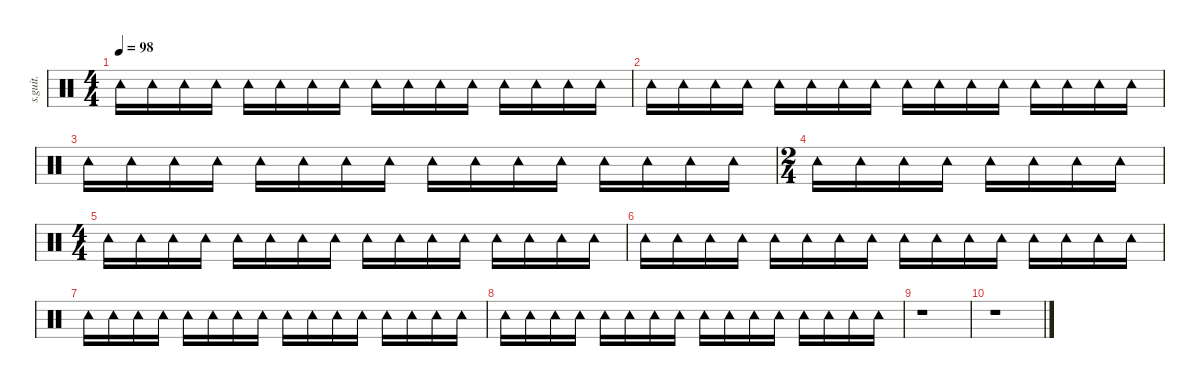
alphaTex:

\defaultSystemsLayout 4
\hideDynamics
\bracketExtendMode nobrackets
\track ("Additional Percussion" "s.guit.") {instrument percussion}
\staff {score}
\articulation defaults
\ts (4 4)
\tempo 98
\clef neutral
\ks c "Tambourine (hit)".16{dy ff} "Tambourine (hit)".16 "Tambourine (hit)".16 "Tambourine (hit)".16 "Tambourine (hit)".16 "Tambourine (hit)".16 "Tambourine (hit)".16 "Tambourine (hit)".16 "Tambourine (hit)".16 "Tambourine (hit)".16 "Tambourine (hit)".16 "Tambourine (hit)".16 "Tambourine (hit)".16 "Tambourine (hit)".16 "Tambourine (hit)".16 "Tambourine (hit)".16
|
"Tambourine (hit)".16 "Tambourine (hit)".16 "Tambourine (hit)".16 "Tambourine (hit)".16 "Tambourine (hit)".16 "Tambourine (hit)".16 "Tambourine (hit)".16 "Tambourine (hit)".16 "Tambourine (hit)".16 "Tambourine (hit)".16 "Tambourine (hit)".16 "Tambourine (hit)".16 "Tambourine (hit)".16 "Tambourine (hit)".16 "Tambourine (hit)".16 "Tambourine (hit)".16 |
"Tambourine (hit)".16 "Tambourine (hit)".16 "Tambourine (hit)".16 "Tambourine (hit)".16 "Tambourine (hit)".16 "Tambourine (hit)".16 "Tambourine (hit)".16 "Tambourine (hit)".16 "Tambourine (hit)".16 "Tambourine (hit)".16 "Tambourine (hit)".16 "Tambourine (hit)".16 "Tambourine (hit)".16 "Tambourine (hit)".16 "Tambourine (hit)".16 "Tambourine (hit)".16 |
\ts (2 4)
\beaming (8 2 2 2 2)
"Tambourine (hit)".16 "Tambourine (hit)".16 "Tambourine (hit)".16 "Tambourine (hit)".16 "Tambourine (hit)".16 "Tambourine (hit)".16 "Tambourine (hit)".16 "Tambourine (hit)".16 |
\ts (4 4)
\beaming (8 2 2 2 2)
"Tambourine (hit)".16 "Tambourine (hit)".16 "Tambourine (hit)".16 "Tambourine (hit)".16 "Tambourine (hit)".16 "Tambourine (hit)".16 "Tambourine (hit)".16 "Tambourine (hit)".16 "Tambourine (hit)".16 "Tambourine (hit)".16 "Tambourine (hit)".16 "Tambourine (hit)".16 "Tambourine (hit)".16 "Tambourine (hit)".16 "Tambourine (hit)".16 "Tambourine (hit)".16 |
"Tambourine (hit)".16 "Tambourine (hit)".16 "Tambourine (hit)".16 "Tambourine (hit)".16 "Tambourine (hit)".16 "Tambourine (hit)".16 "Tambourine (hit)".16 "Tambourine (hit)".16 "Tambourine (hit)".16 "Tambourine (hit)".16 "Tambourine (hit)".16 "Tambourine (hit)".16 "Tambourine (hit)".16 "Tambourine (hit)".16 "Tambourine (hit)".16 "Tambourine (hit)".16 |
"Tambourine (hit)".16 "Tambourine (hit)".16 "Tambourine (hit)".16 "Tambourine (hit)".16 "Tambourine (hit)".16 "Tambourine (hit)".16 "Tambourine (hit)".16 "Tambourine (hit)".16 "Tambourine (hit)".16 "Tambourine (hit)".16 "Tambourine (hit)".16 "Tambourine (hit)".16 "Tambourine (hit)".16 "Tambourine (hit)".16 "Tambourine (hit)".16 "Tambourine (hit)".16 |
"Tambourine (hit)".16 "Tambourine (hit)".16 "Tambourine (hit)".16 "Tambourine (hit)".16 "Tambourine (hit)".16 "Tambourine (hit)".16 "Tambourine (hit)".16 "Tambourine (hit)".16 "Tambourine (hit)".16 "Tambourine (hit)".16 "Tambourine (hit)".16 "Tambourine (hit)".16 "Tambourine (hit)".16 "Tambourine (hit)".16 "Tambourine (hit)".16 "Tambourine (hit)".16 |
r.1 |
r.1
